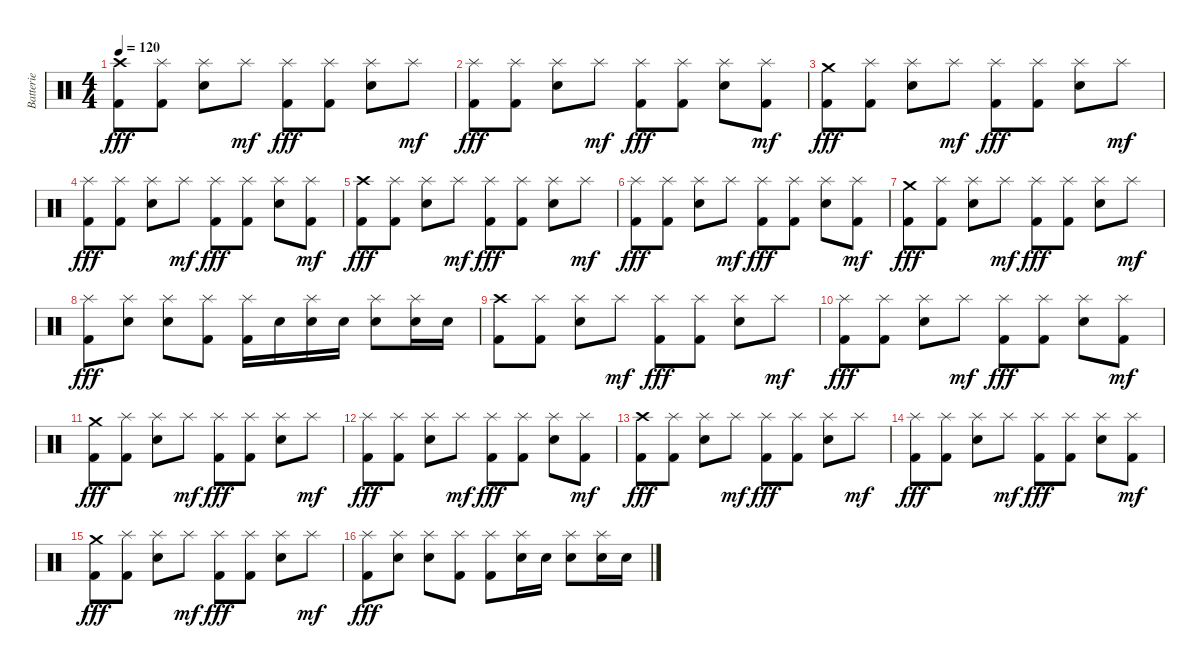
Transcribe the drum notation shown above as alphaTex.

\track ("Batterie" "Batterie") {instrument percussion}
\staff {score}
\articulation defaults
\ts (4 4)
\tempo 120
\clef neutral
\ks c
("Crash high (hit)" "Kick (hit) 2").8{dy fff} ("Splash (hit)" "Kick (hit) 2").8 ("Splash (hit)" "Electric Snare (hit)").8 "Splash (hit)".8{dy mf} ("Splash (hit)" "Kick (hit) 2").8{dy fff} ("Splash (hit)" "Kick (hit) 2").8 ("Splash (hit)" "Electric Snare (hit)").8 "Splash (hit)".8{dy mf} |
("Splash (hit)" "Kick (hit) 2").8{dy fff} ("Splash (hit)" "Kick (hit) 2").8 ("Splash (hit)" "Electric Snare (hit)").8 "Splash (hit)".8{dy mf} ("Splash (hit)" "Kick (hit) 2").8{dy fff} ("Splash (hit)" "Kick (hit) 2").8 ("Splash (hit)" "Electric Snare (hit)").8 ("Splash (hit)" "Kick (hit) 2").8{dy mf} |
("Crash medium (hit)" "Kick (hit) 2").8{dy fff} ("Splash (hit)" "Kick (hit) 2").8 ("Splash (hit)" "Electric Snare (hit)").8 "Splash (hit)".8{dy mf} ("Splash (hit)" "Kick (hit) 2").8{dy fff} ("Splash (hit)" "Kick (hit) 2").8 ("Splash (hit)" "Electric Snare (hit)").8 "Splash (hit)".8{dy mf} |
("Splash (hit)" "Kick (hit) 2").8{dy fff} ("Splash (hit)" "Kick (hit) 2").8 ("Splash (hit)" "Electric Snare (hit)").8 "Splash (hit)".8{dy mf} ("Splash (hit)" "Kick (hit) 2").8{dy fff} ("Splash (hit)" "Kick (hit) 2").8 ("Splash (hit)" "Electric Snare (hit)").8 ("Splash (hit)" "Kick (hit) 2").8{dy mf} |
("Crash high (hit)" "Kick (hit) 2").8{dy fff} ("Splash (hit)" "Kick (hit) 2").8 ("Splash (hit)" "Electric Snare (hit)").8 "Splash (hit)".8{dy mf} ("Splash (hit)" "Kick (hit) 2").8{dy fff} ("Splash (hit)" "Kick (hit) 2").8 ("Splash (hit)" "Electric Snare (hit)").8 "Splash (hit)".8{dy mf} |
("Splash (hit)" "Kick (hit) 2").8{dy fff} ("Splash (hit)" "Kick (hit) 2").8 ("Splash (hit)" "Electric Snare (hit)").8 "Splash (hit)".8{dy mf} ("Splash (hit)" "Kick (hit) 2").8{dy fff} ("Splash (hit)" "Kick (hit) 2").8 ("Splash (hit)" "Electric Snare (hit)").8 ("Splash (hit)" "Kick (hit) 2").8{dy mf} |
("Crash medium (hit)" "Kick (hit) 2").8{dy fff} ("Splash (hit)" "Kick (hit) 2").8 ("Splash (hit)" "Electric Snare (hit)").8 "Splash (hit)".8{dy mf} ("Splash (hit)" "Kick (hit) 2").8{dy fff} ("Splash (hit)" "Kick (hit) 2").8 ("Splash (hit)" "Electric Snare (hit)").8 "Splash (hit)".8{dy mf} |
("Splash (hit)" "Kick (hit) 2").8{dy fff} ("Splash (hit)" "Electric Snare (hit)").8 ("Splash (hit)" "Electric Snare (hit)").8 ("Splash (hit)" "Kick (hit) 2").8 ("Splash (hit)" "Kick (hit) 2").16 "Electric Snare (hit)".16 ("Splash (hit)" "Electric Snare (hit)").16 "Electric Snare (hit)".16 ("Splash (hit)" "Electric Snare (hit)").8 ("Splash (hit)" "Electric Snare (hit)").16 "Electric Snare (hit)".16 |
("Crash high (hit)" "Kick (hit) 2").8 ("Splash (hit)" "Kick (hit) 2").8 ("Splash (hit)" "Electric Snare (hit)").8 "Splash (hit)".8{dy mf} ("Splash (hit)" "Kick (hit) 2").8{dy fff} ("Splash (hit)" "Kick (hit) 2").8 ("Splash (hit)" "Electric Snare (hit)").8 "Splash (hit)".8{dy mf} |
("Splash (hit)" "Kick (hit) 2").8{dy fff} ("Splash (hit)" "Kick (hit) 2").8 ("Splash (hit)" "Electric Snare (hit)").8 "Splash (hit)".8{dy mf} ("Splash (hit)" "Kick (hit) 2").8{dy fff} ("Splash (hit)" "Kick (hit) 2").8 ("Splash (hit)" "Electric Snare (hit)").8 ("Splash (hit)" "Kick (hit) 2").8{dy mf} |
("Crash medium (hit)" "Kick (hit) 2").8{dy fff} ("Splash (hit)" "Kick (hit) 2").8 ("Splash (hit)" "Electric Snare (hit)").8 "Splash (hit)".8{dy mf} ("Splash (hit)" "Kick (hit) 2").8{dy fff} ("Splash (hit)" "Kick (hit) 2").8 ("Splash (hit)" "Electric Snare (hit)").8 "Splash (hit)".8{dy mf} |
("Splash (hit)" "Kick (hit) 2").8{dy fff} ("Splash (hit)" "Kick (hit) 2").8 ("Splash (hit)" "Electric Snare (hit)").8 "Splash (hit)".8{dy mf} ("Splash (hit)" "Kick (hit) 2").8{dy fff} ("Splash (hit)" "Kick (hit) 2").8 ("Splash (hit)" "Electric Snare (hit)").8 ("Splash (hit)" "Kick (hit) 2").8{dy mf} |
("Crash high (hit)" "Kick (hit) 2").8{dy fff} ("Splash (hit)" "Kick (hit) 2").8 ("Splash (hit)" "Electric Snare (hit)").8 "Splash (hit)".8{dy mf} ("Splash (hit)" "Kick (hit) 2").8{dy fff} ("Splash (hit)" "Kick (hit) 2").8 ("Splash (hit)" "Electric Snare (hit)").8 "Splash (hit)".8{dy mf} |
("Splash (hit)" "Kick (hit) 2").8{dy fff} ("Splash (hit)" "Kick (hit) 2").8 ("Splash (hit)" "Electric Snare (hit)").8 "Splash (hit)".8{dy mf} ("Splash (hit)" "Kick (hit) 2").8{dy fff} ("Splash (hit)" "Kick (hit) 2").8 ("Splash (hit)" "Electric Snare (hit)").8 ("Splash (hit)" "Kick (hit) 2").8{dy mf} |
("Crash medium (hit)" "Kick (hit) 2").8{dy fff} ("Splash (hit)" "Kick (hit) 2").8 ("Splash (hit)" "Electric Snare (hit)").8 "Splash (hit)".8{dy mf} ("Splash (hit)" "Kick (hit) 2").8{dy fff} ("Splash (hit)" "Kick (hit) 2").8 ("Splash (hit)" "Electric Snare (hit)").8 "Splash (hit)".8{dy mf} |
("Splash (hit)" "Kick (hit) 2").8{dy fff} ("Splash (hit)" "Electric Snare (hit)").8 ("Splash (hit)" "Electric Snare (hit)").8 ("Splash (hit)" "Kick (hit) 2").8 ("Splash (hit)" "Kick (hit) 2").8 ("Splash (hit)" "Electric Snare (hit)").16 "Electric Snare (hit)".16 ("Splash (hit)" "Electric Snare (hit)").8 ("Splash (hit)" "Electric Snare (hit)").16 "Electric Snare (hit)".16
